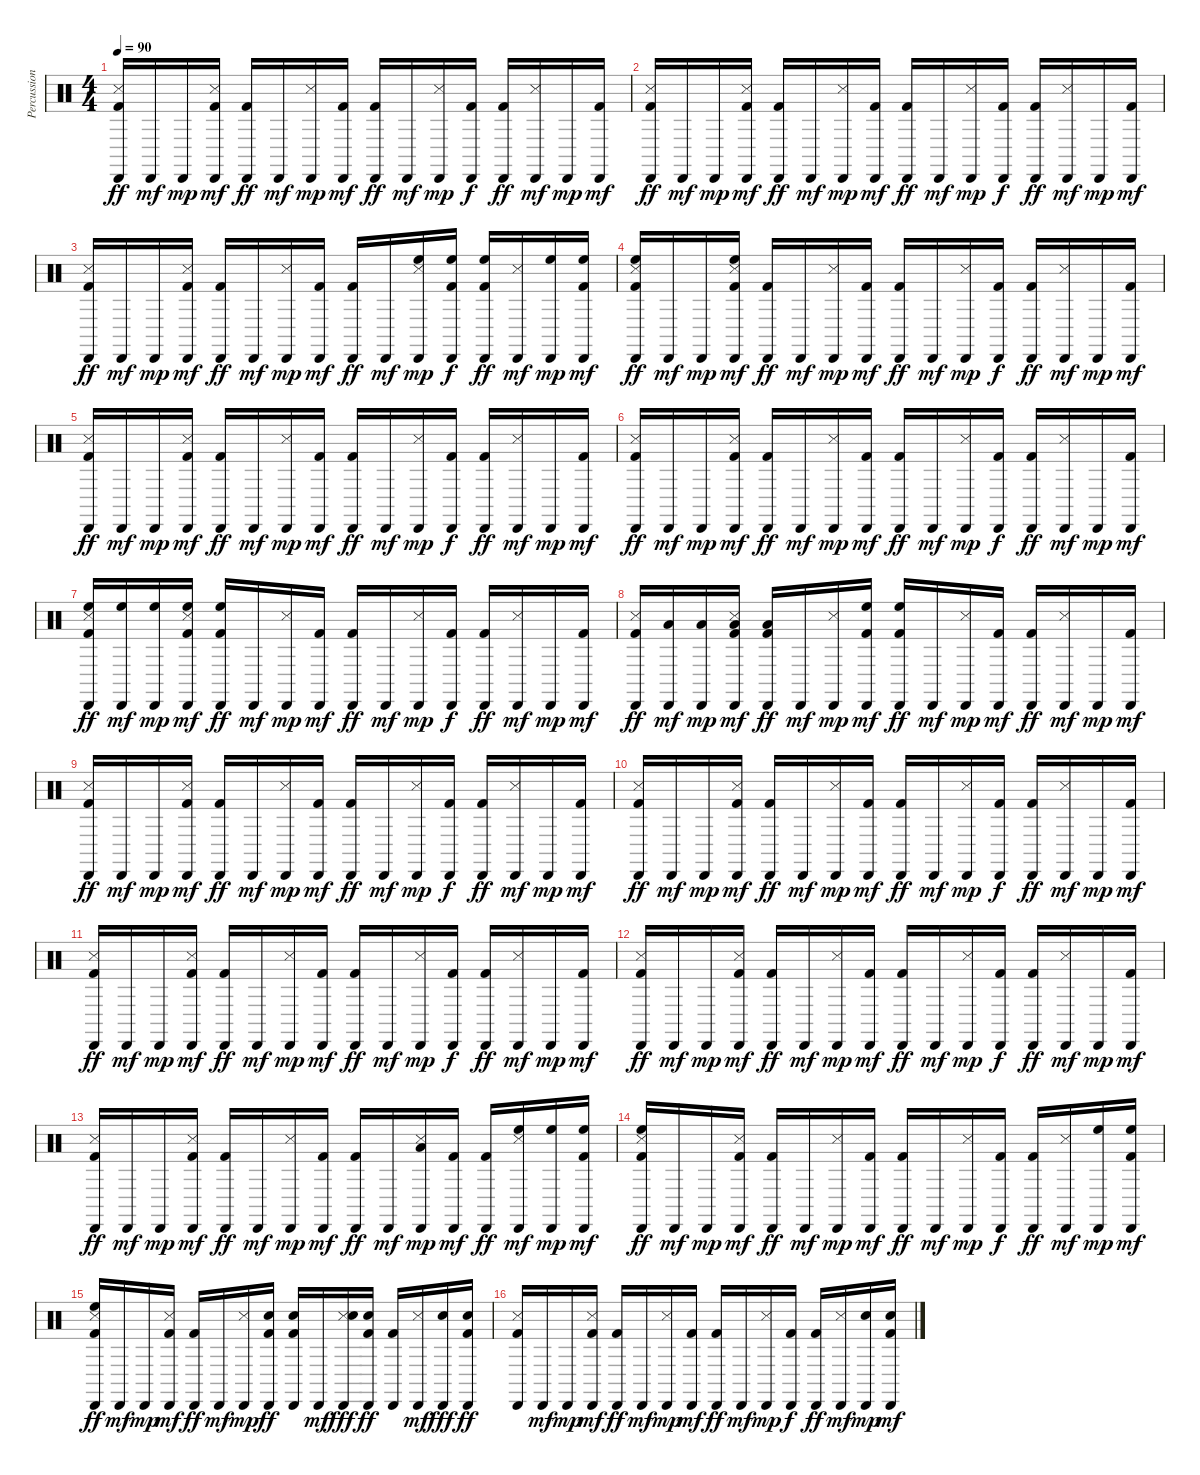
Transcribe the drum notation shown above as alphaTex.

\track ("Percussions" "Percussion") {instrument percussion}
\staff {score}
\articulation defaults
\ts (4 4)
\tempo 90
\clef neutral
\ks c
("Cabasa (hit)" "Snare (side stick) 3" "Kick (hit) 2").16{dy ff} "Cabasa (hit)".16{dy mf} "Cabasa (hit)".16{dy mp} ("Cabasa (hit)" "Snare (side stick) 3" "Kick (hit) 2").16{dy mf} ("Cabasa (hit)" "Kick (hit) 2").16{dy ff} "Cabasa (hit)".16{dy mf} ("Cabasa (hit)" "Snare (side stick) 3").16{dy mp} ("Cabasa (hit)" "Kick (hit) 2").16{dy mf} ("Cabasa (hit)" "Kick (hit) 2").16{dy ff} "Cabasa (hit)".16{dy mf} ("Cabasa (hit)" "Snare (side stick) 3").16{dy mp} ("Cabasa (hit)" "Kick (hit) 2").16{dy f} ("Cabasa (hit)" "Kick (hit) 2").16{dy ff} ("Cabasa (hit)" "Snare (side stick) 3").16{dy mf} "Cabasa (hit)".16{dy mp} ("Kick (hit) 2" "Cabasa (hit)").16{dy mf} |
("Cabasa (hit)" "Snare (side stick) 3" "Kick (hit) 2").16{dy ff} "Cabasa (hit)".16{dy mf} "Cabasa (hit)".16{dy mp} ("Cabasa (hit)" "Snare (side stick) 3" "Kick (hit) 2").16{dy mf} ("Cabasa (hit)" "Kick (hit) 2").16{dy ff} "Cabasa (hit)".16{dy mf} ("Cabasa (hit)" "Snare (side stick) 3").16{dy mp} ("Cabasa (hit)" "Kick (hit) 2").16{dy mf} ("Cabasa (hit)" "Kick (hit) 2").16{dy ff} "Cabasa (hit)".16{dy mf} ("Cabasa (hit)" "Snare (side stick) 3").16{dy mp} ("Cabasa (hit)" "Kick (hit) 2").16{dy f} ("Cabasa (hit)" "Kick (hit) 2").16{dy ff} ("Cabasa (hit)" "Snare (side stick) 3").16{dy mf} "Cabasa (hit)".16{dy mp} ("Kick (hit) 2" "Cabasa (hit)").16{dy mf} |
("Cabasa (hit)" "Snare (side stick) 3" "Kick (hit) 2").16{dy ff} "Cabasa (hit)".16{dy mf} "Cabasa (hit)".16{dy mp} ("Cabasa (hit)" "Snare (side stick) 3" "Kick (hit) 2").16{dy mf} ("Cabasa (hit)" "Kick (hit) 2").16{dy ff} "Cabasa (hit)".16{dy mf} ("Cabasa (hit)" "Snare (side stick) 3").16{dy mp} ("Cabasa (hit)" "Kick (hit) 2").16{dy mf} ("Cabasa (hit)" "Kick (hit) 2").16{dy ff} "Cabasa (hit)".16{dy mf} ("Cabasa (hit)" "Snare (side stick) 3" "High Floor Tom (hit)").16{dy mp} ("Cabasa (hit)" "Kick (hit) 2" "High Floor Tom (hit)").16{dy f} ("Cabasa (hit)" "Kick (hit) 2" "High Floor Tom (hit)").16{dy ff} ("Cabasa (hit)" "Snare (side stick) 3").16{dy mf} ("Cabasa (hit)" "High Floor Tom (hit)").16{dy mp} ("Kick (hit) 2" "Cabasa (hit)" "High Floor Tom (hit)").16{dy mf} |
("Cabasa (hit)" "Snare (side stick) 3" "Kick (hit) 2" "High Floor Tom (hit)").16{dy ff} "Cabasa (hit)".16{dy mf} "Cabasa (hit)".16{dy mp} ("Cabasa (hit)" "Snare (side stick) 3" "Kick (hit) 2" "High Floor Tom (hit)").16{dy mf} ("Cabasa (hit)" "Kick (hit) 2").16{dy ff} "Cabasa (hit)".16{dy mf} ("Cabasa (hit)" "Snare (side stick) 3").16{dy mp} ("Cabasa (hit)" "Kick (hit) 2").16{dy mf} ("Cabasa (hit)" "Kick (hit) 2").16{dy ff} "Cabasa (hit)".16{dy mf} ("Cabasa (hit)" "Snare (side stick) 3").16{dy mp} ("Cabasa (hit)" "Kick (hit) 2").16{dy f} ("Cabasa (hit)" "Kick (hit) 2").16{dy ff} ("Cabasa (hit)" "Snare (side stick) 3").16{dy mf} "Cabasa (hit)".16{dy mp} ("Kick (hit) 2" "Cabasa (hit)").16{dy mf} |
("Cabasa (hit)" "Snare (side stick) 3" "Kick (hit) 2").16{dy ff} "Cabasa (hit)".16{dy mf} "Cabasa (hit)".16{dy mp} ("Cabasa (hit)" "Snare (side stick) 3" "Kick (hit) 2").16{dy mf} ("Cabasa (hit)" "Kick (hit) 2").16{dy ff} "Cabasa (hit)".16{dy mf} ("Cabasa (hit)" "Snare (side stick) 3").16{dy mp} ("Cabasa (hit)" "Kick (hit) 2").16{dy mf} ("Cabasa (hit)" "Kick (hit) 2").16{dy ff} "Cabasa (hit)".16{dy mf} ("Cabasa (hit)" "Snare (side stick) 3").16{dy mp} ("Cabasa (hit)" "Kick (hit) 2").16{dy f} ("Cabasa (hit)" "Kick (hit) 2").16{dy ff} ("Cabasa (hit)" "Snare (side stick) 3").16{dy mf} "Cabasa (hit)".16{dy mp} ("Kick (hit) 2" "Cabasa (hit)").16{dy mf} |
("Cabasa (hit)" "Snare (side stick) 3" "Kick (hit) 2").16{dy ff} "Cabasa (hit)".16{dy mf} "Cabasa (hit)".16{dy mp} ("Cabasa (hit)" "Snare (side stick) 3" "Kick (hit) 2").16{dy mf} ("Cabasa (hit)" "Kick (hit) 2").16{dy ff} "Cabasa (hit)".16{dy mf} ("Cabasa (hit)" "Snare (side stick) 3").16{dy mp} ("Cabasa (hit)" "Kick (hit) 2").16{dy mf} ("Cabasa (hit)" "Kick (hit) 2").16{dy ff} "Cabasa (hit)".16{dy mf} ("Cabasa (hit)" "Snare (side stick) 3").16{dy mp} ("Cabasa (hit)" "Kick (hit) 2").16{dy f} ("Cabasa (hit)" "Kick (hit) 2").16{dy ff} ("Cabasa (hit)" "Snare (side stick) 3").16{dy mf} "Cabasa (hit)".16{dy mp} ("Kick (hit) 2" "Cabasa (hit)").16{dy mf} |
("Cabasa (hit)" "Snare (side stick) 3" "Kick (hit) 2" "High Floor Tom (hit)").16{dy ff} ("Cabasa (hit)" "High Floor Tom (hit)").16{dy mf} ("Cabasa (hit)" "High Floor Tom (hit)").16{dy mp} ("Cabasa (hit)" "Snare (side stick) 3" "Kick (hit) 2" "High Floor Tom (hit)").16{dy mf} ("Cabasa (hit)" "Kick (hit) 2" "High Floor Tom (hit)").16{dy ff} "Cabasa (hit)".16{dy mf} ("Cabasa (hit)" "Snare (side stick) 3").16{dy mp} ("Cabasa (hit)" "Kick (hit) 2").16{dy mf} ("Cabasa (hit)" "Kick (hit) 2").16{dy ff} "Cabasa (hit)".16{dy mf} ("Cabasa (hit)" "Snare (side stick) 3").16{dy mp} ("Cabasa (hit)" "Kick (hit) 2").16{dy f} ("Cabasa (hit)" "Kick (hit) 2").16{dy ff} ("Cabasa (hit)" "Snare (side stick) 3").16{dy mf} "Cabasa (hit)".16{dy mp} ("Kick (hit) 2" "Cabasa (hit)").16{dy mf} |
("Cabasa (hit)" "Snare (side stick) 3" "Kick (hit) 2").16{dy ff} ("Low Floor Tom (hit)" "Cabasa (hit)").16{dy mf} ("Low Floor Tom (hit)" "Cabasa (hit)").16{dy mp} ("Low Floor Tom (hit)" "Cabasa (hit)" "Snare (side stick) 3" "Kick (hit) 2").16{dy mf} ("Low Floor Tom (hit)" "Cabasa (hit)" "Kick (hit) 2").16{dy ff} "Cabasa (hit)".16{dy mf} ("Cabasa (hit)" "Snare (side stick) 3").16{dy mp} ("Cabasa (hit)" "Kick (hit) 2" "High Floor Tom (hit)").16{dy mf} ("Cabasa (hit)" "Kick (hit) 2" "High Floor Tom (hit)").16{dy ff} "Cabasa (hit)".16{dy mf} ("Cabasa (hit)" "Snare (side stick) 3").16{dy mp} ("Cabasa (hit)" "Kick (hit) 2").16{dy mf} ("Cabasa (hit)" "Kick (hit) 2").16{dy ff} ("Cabasa (hit)" "Snare (side stick) 3").16{dy mf} "Cabasa (hit)".16{dy mp} ("Cabasa (hit)" "Kick (hit) 2").16{dy mf} |
("Cabasa (hit)" "Snare (side stick) 3" "Kick (hit) 2").16{dy ff} "Cabasa (hit)".16{dy mf} "Cabasa (hit)".16{dy mp} ("Cabasa (hit)" "Snare (side stick) 3" "Kick (hit) 2").16{dy mf} ("Cabasa (hit)" "Kick (hit) 2").16{dy ff} "Cabasa (hit)".16{dy mf} ("Cabasa (hit)" "Snare (side stick) 3").16{dy mp} ("Cabasa (hit)" "Kick (hit) 2").16{dy mf} ("Cabasa (hit)" "Kick (hit) 2").16{dy ff} "Cabasa (hit)".16{dy mf} ("Cabasa (hit)" "Snare (side stick) 3").16{dy mp} ("Cabasa (hit)" "Kick (hit) 2").16{dy f} ("Cabasa (hit)" "Kick (hit) 2").16{dy ff} ("Cabasa (hit)" "Snare (side stick) 3").16{dy mf} "Cabasa (hit)".16{dy mp} ("Kick (hit) 2" "Cabasa (hit)").16{dy mf} |
("Cabasa (hit)" "Snare (side stick) 3" "Kick (hit) 2").16{dy ff} "Cabasa (hit)".16{dy mf} "Cabasa (hit)".16{dy mp} ("Cabasa (hit)" "Snare (side stick) 3" "Kick (hit) 2").16{dy mf} ("Cabasa (hit)" "Kick (hit) 2").16{dy ff} "Cabasa (hit)".16{dy mf} ("Cabasa (hit)" "Snare (side stick) 3").16{dy mp} ("Cabasa (hit)" "Kick (hit) 2").16{dy mf} ("Cabasa (hit)" "Kick (hit) 2").16{dy ff} "Cabasa (hit)".16{dy mf} ("Cabasa (hit)" "Snare (side stick) 3").16{dy mp} ("Cabasa (hit)" "Kick (hit) 2").16{dy f} ("Cabasa (hit)" "Kick (hit) 2").16{dy ff} ("Cabasa (hit)" "Snare (side stick) 3").16{dy mf} "Cabasa (hit)".16{dy mp} ("Kick (hit) 2" "Cabasa (hit)").16{dy mf} |
("Cabasa (hit)" "Snare (side stick) 3" "Kick (hit) 2").16{dy ff} "Cabasa (hit)".16{dy mf} "Cabasa (hit)".16{dy mp} ("Cabasa (hit)" "Snare (side stick) 3" "Kick (hit) 2").16{dy mf} ("Cabasa (hit)" "Kick (hit) 2").16{dy ff} "Cabasa (hit)".16{dy mf} ("Cabasa (hit)" "Snare (side stick) 3").16{dy mp} ("Cabasa (hit)" "Kick (hit) 2").16{dy mf} ("Cabasa (hit)" "Kick (hit) 2").16{dy ff} "Cabasa (hit)".16{dy mf} ("Cabasa (hit)" "Snare (side stick) 3").16{dy mp} ("Cabasa (hit)" "Kick (hit) 2").16{dy f} ("Cabasa (hit)" "Kick (hit) 2").16{dy ff} ("Cabasa (hit)" "Snare (side stick) 3").16{dy mf} "Cabasa (hit)".16{dy mp} ("Kick (hit) 2" "Cabasa (hit)").16{dy mf} |
("Cabasa (hit)" "Snare (side stick) 3" "Kick (hit) 2").16{dy ff} "Cabasa (hit)".16{dy mf} "Cabasa (hit)".16{dy mp} ("Cabasa (hit)" "Snare (side stick) 3" "Kick (hit) 2").16{dy mf} ("Cabasa (hit)" "Kick (hit) 2").16{dy ff} "Cabasa (hit)".16{dy mf} ("Cabasa (hit)" "Snare (side stick) 3").16{dy mp} ("Cabasa (hit)" "Kick (hit) 2").16{dy mf} ("Cabasa (hit)" "Kick (hit) 2").16{dy ff} "Cabasa (hit)".16{dy mf} ("Cabasa (hit)" "Snare (side stick) 3").16{dy mp} ("Cabasa (hit)" "Kick (hit) 2").16{dy f} ("Cabasa (hit)" "Kick (hit) 2").16{dy ff} ("Cabasa (hit)" "Snare (side stick) 3").16{dy mf} "Cabasa (hit)".16{dy mp} ("Kick (hit) 2" "Cabasa (hit)").16{dy mf} |
("Cabasa (hit)" "Snare (side stick) 3" "Kick (hit) 2").16{dy ff} "Cabasa (hit)".16{dy mf} "Cabasa (hit)".16{dy mp} ("Cabasa (hit)" "Snare (side stick) 3" "Kick (hit) 2").16{dy mf} ("Cabasa (hit)" "Kick (hit) 2").16{dy ff} "Cabasa (hit)".16{dy mf} ("Snare (side stick) 3" "Cabasa (hit)").16{dy mp} ("Cabasa (hit)" "Kick (hit) 2").16{dy mf} ("Cabasa (hit)" "Kick (hit) 2").16{dy ff} "Cabasa (hit)".16{dy mf} ("Low Floor Tom (hit)" "Cabasa (hit)" "Snare (side stick) 3").16{dy mp} ("Cabasa (hit)" "Kick (hit) 2").16{dy mf} ("Cabasa (hit)" "Kick (hit) 2").16{dy ff} ("Snare (side stick) 3" "Cabasa (hit)" "High Floor Tom (hit)").16{dy mf} ("Cabasa (hit)" "High Floor Tom (hit)").16{dy mp} ("Cabasa (hit)" "Kick (hit) 2" "High Floor Tom (hit)").16{dy mf} |
("Cabasa (hit)" "Snare (side stick) 3" "Kick (hit) 2" "High Floor Tom (hit)").16{dy ff} "Cabasa (hit)".16{dy mf} "Cabasa (hit)".16{dy mp} ("Cabasa (hit)" "Snare (side stick) 3" "Kick (hit) 2").16{dy mf} ("Cabasa (hit)" "Kick (hit) 2").16{dy ff} "Cabasa (hit)".16{dy mf} ("Cabasa (hit)" "Snare (side stick) 3").16{dy mp} ("Cabasa (hit)" "Kick (hit) 2").16{dy mf} ("Cabasa (hit)" "Kick (hit) 2").16{dy ff} "Cabasa (hit)".16{dy mf} ("Cabasa (hit)" "Snare (side stick) 3").16{dy mp} ("Cabasa (hit)" "Kick (hit) 2").16{dy f} ("Cabasa (hit)" "Kick (hit) 2").16{dy ff} ("Cabasa (hit)" "Snare (side stick) 3").16{dy mf} ("Cabasa (hit)" "High Floor Tom (hit)").16{dy mp} ("Kick (hit) 2" "Cabasa (hit)" "High Floor Tom (hit)").16{dy mf} |
("Cabasa (hit)" "Snare (side stick) 3" "Kick (hit) 2" "High Floor Tom (hit)").16{dy ff} "Cabasa (hit)".16{dy mf} "Cabasa (hit)".16{dy mp} ("Cabasa (hit)" "Snare (side stick) 3" "Kick (hit) 2").16{dy mf} ("Cabasa (hit)" "Kick (hit) 2").16{dy ff} "Cabasa (hit)".16{dy mf} ("Cabasa (hit)" "Snare (side stick) 3").16{dy mp} ("Cabasa (hit)" "Snare (hit) 2" "Kick (hit) 2").16{dy ff} ("Cabasa (hit)" "Snare (hit) 2" "Kick (hit) 2").16 "Cabasa (hit)".16{dy mf} ("Cabasa (hit)" "Snare (side stick) 3" "Snare (hit) 2").16{dy fff} ("Cabasa (hit)" "Snare (hit) 2" "Kick (hit) 2").16{dy ff} ("Cabasa (hit)" "Kick (hit) 2").16 ("Cabasa (hit)" "Snare (side stick) 3").16{dy mf} ("Cabasa (hit)" "Snare (hit) 2").16{dy fff} ("Cabasa (hit)" "Snare (hit) 2" "Kick (hit) 2").16{dy ff} |
("Cabasa (hit)" "Snare (side stick) 3" "Kick (hit) 2").16 "Cabasa (hit)".16{dy mf} "Cabasa (hit)".16{dy mp} ("Cabasa (hit)" "Snare (side stick) 3" "Kick (hit) 2").16{dy mf} ("Cabasa (hit)" "Kick (hit) 2").16{dy ff} "Cabasa (hit)".16{dy mf} ("Cabasa (hit)" "Snare (side stick) 3").16{dy mp} ("Cabasa (hit)" "Kick (hit) 2").16{dy mf} ("Cabasa (hit)" "Kick (hit) 2").16{dy ff} "Cabasa (hit)".16{dy mf} ("Cabasa (hit)" "Snare (side stick) 3").16{dy mp} ("Cabasa (hit)" "Kick (hit) 2").16{dy f} ("Cabasa (hit)" "Kick (hit) 2").16{dy ff} ("Cabasa (hit)" "Snare (side stick) 3").16{dy mf} ("Cabasa (hit)" "Snare (hit) 2").16{dy mp} ("Cabasa (hit)" "Snare (hit) 2" "Kick (hit) 2").16{dy mf}
